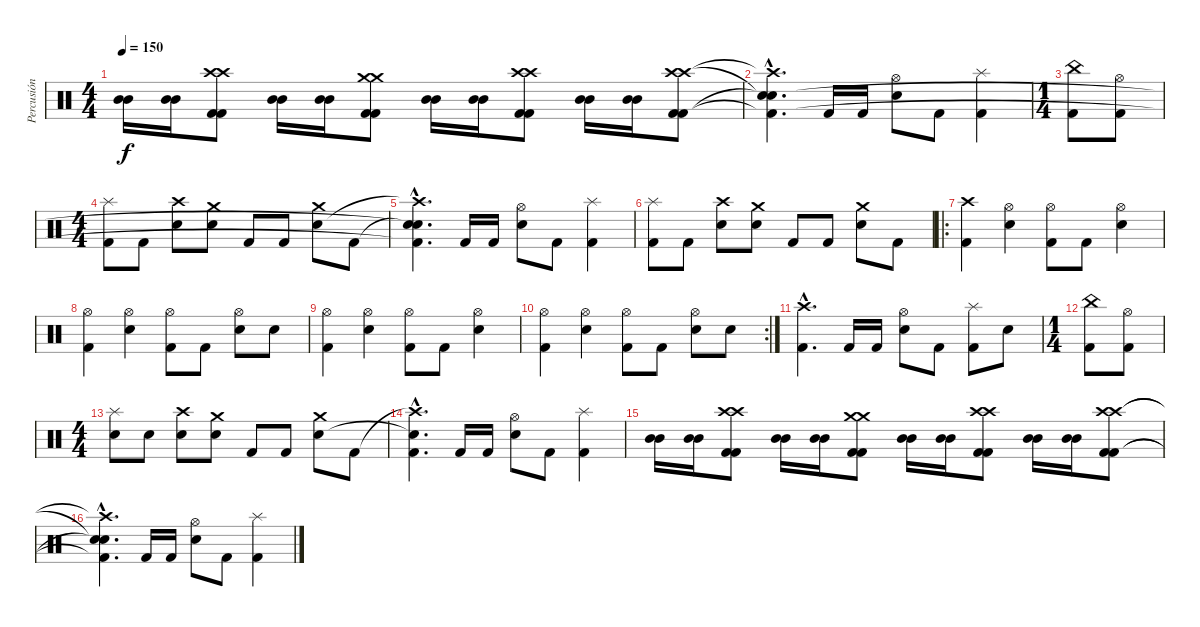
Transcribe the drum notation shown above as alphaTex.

\track ("Percusión" "Percusión") {instrument percussion}
\staff {score}
\articulation defaults
\ts (4 4)
\tempo 150
\clef neutral
\ks c
("Mid Tom (hit)" "Mid Tom (hit)").16{dy f} ("Mid Tom (hit)" "Mid Tom (hit)").16 ("Crash high (hit)" "Crash high (hit)" "Kick (hit) 2" "Kick (hit) 2").8 ("Mid Tom (hit)" "Mid Tom (hit)").16 ("Mid Tom (hit)" "Mid Tom (hit)").16 ("Crash medium (hit)" "Crash medium (hit)" "Kick (hit) 2" "Kick (hit) 2").8 ("Mid Tom (hit)" "Mid Tom (hit)").16 ("Mid Tom (hit)" "Mid Tom (hit)").16 ("Crash high (hit)" "Crash high (hit)" "Kick (hit) 2" "Kick (hit) 2").8 ("Mid Tom (hit)" "Mid Tom (hit)").16 ("Mid Tom (hit)" "Mid Tom (hit)").16 ("Crash high (hit)" "Crash high (hit)" "Kick (hit) 2" "Kick (hit) 2").8 |
("Snare (hit)"{hac t} "Crash high (hit)"{hac t} "Snare (hit)"{hac t} "Kick (hit) 2"{hac t}).4{d} "Kick (hit) 2".16 "Kick (hit) 2".16 ("Hi-Hat (open)" "Electric Snare (hit)").8 "Kick (hit) 2".8 ("Splash (hit)" "Kick (hit) 2").4 |
\ts (1 4)
("China (hit)" "Kick (hit) 2").8 ("Hi-Hat (open)" "Kick (hit) 2").8 |
\ts (4 4)
("Splash (hit)" "Kick (hit) 2").8 "Kick (hit) 2".8 ("Crash high (hit)" "Electric Snare (hit)").8 ("Crash medium (hit)" "Electric Snare (hit)").8 "Kick (hit) 2".8 "Kick (hit) 2".8 ("Crash medium (hit)" "Electric Snare (hit)").8 "Kick (hit) 2".8 |
("Snare (hit)"{hac t} "Crash high (hit)"{hac t} "Snare (hit)"{hac t} "Kick (hit) 2"{hac t}).4{d} "Kick (hit) 2".16 "Kick (hit) 2".16 ("Hi-Hat (open)" "Electric Snare (hit)").8 "Kick (hit) 2".8 ("Splash (hit)" "Kick (hit) 2").4 |
("Splash (hit)" "Kick (hit) 2").8 "Kick (hit) 2".8 ("Crash high (hit)" "Electric Snare (hit)").8 ("Crash medium (hit)" "Electric Snare (hit)").8 "Kick (hit) 2".8 "Kick (hit) 2".8 ("Crash medium (hit)" "Electric Snare (hit)").8 "Kick (hit) 2".8 |
\ro
("Crash high (hit)" "Kick (hit) 2").4 ("Hi-Hat (open)" "Electric Snare (hit)").4 ("Hi-Hat (open)" "Kick (hit) 2").8 "Kick (hit) 2".8 ("Hi-Hat (open)" "Electric Snare (hit)").4 |
("Hi-Hat (open)" "Kick (hit) 2").4 ("Hi-Hat (open)" "Electric Snare (hit)").4 ("Hi-Hat (open)" "Kick (hit) 2").8 "Kick (hit) 2".8 ("Hi-Hat (open)" "Electric Snare (hit)").8 "Electric Snare (hit)".8 |
("Hi-Hat (open)" "Kick (hit) 2").4 ("Hi-Hat (open)" "Electric Snare (hit)").4 ("Hi-Hat (open)" "Kick (hit) 2").8 "Kick (hit) 2".8 ("Hi-Hat (open)" "Electric Snare (hit)").4 |
\rc 2
("Hi-Hat (open)" "Kick (hit) 2").4 ("Hi-Hat (open)" "Electric Snare (hit)").4 ("Hi-Hat (open)" "Kick (hit) 2").8 "Kick (hit) 2".8 ("Hi-Hat (open)" "Electric Snare (hit)").8 "Electric Snare (hit)".8 |
("Crash high (hit)"{hac} "Kick (hit) 2"{hac}).4{d} "Kick (hit) 2".16 "Kick (hit) 2".16 ("Hi-Hat (open)" "Electric Snare (hit)").8 "Kick (hit) 2".8 ("Splash (hit)" "Kick (hit) 2").8 "Electric Snare (hit)".8 |
\ts (1 4)
("China (hit)" "Kick (hit) 2").8 ("Hi-Hat (open)" "Kick (hit) 2").8 |
\ts (4 4)
("Splash (hit)" "Electric Snare (hit)").8 "Electric Snare (hit)".8 ("Crash high (hit)" "Electric Snare (hit)").8 ("Crash medium (hit)" "Electric Snare (hit)").8 "Kick (hit) 2".8 "Kick (hit) 2".8 ("Crash medium (hit)" "Electric Snare (hit)").8 "Kick (hit) 2".8 |
("Crash high (hit)"{hac t} "Snare (hit)"{hac t} "Kick (hit) 2"{hac}).4{d} "Kick (hit) 2".16 "Kick (hit) 2".16 ("Hi-Hat (open)" "Electric Snare (hit)").8 "Kick (hit) 2".8 ("Splash (hit)" "Kick (hit) 2").4 |
("Mid Tom (hit)" "Mid Tom (hit)").16 ("Mid Tom (hit)" "Mid Tom (hit)").16 ("Crash high (hit)" "Crash high (hit)" "Kick (hit) 2" "Kick (hit) 2").8 ("Mid Tom (hit)" "Mid Tom (hit)").16 ("Mid Tom (hit)" "Mid Tom (hit)").16 ("Crash medium (hit)" "Crash medium (hit)" "Kick (hit) 2" "Kick (hit) 2").8 ("Mid Tom (hit)" "Mid Tom (hit)").16 ("Mid Tom (hit)" "Mid Tom (hit)").16 ("Crash high (hit)" "Crash high (hit)" "Kick (hit) 2" "Kick (hit) 2").8 ("Mid Tom (hit)" "Mid Tom (hit)").16 ("Mid Tom (hit)" "Mid Tom (hit)").16 ("Crash high (hit)" "Crash high (hit)" "Kick (hit) 2" "Kick (hit) 2").8 |
("Snare (hit)"{hac t} "Crash high (hit)"{hac t} "Snare (hit)"{hac t} "Kick (hit) 2"{hac t}).4{d} "Kick (hit) 2".16 "Kick (hit) 2".16 ("Hi-Hat (open)" "Electric Snare (hit)").8 "Kick (hit) 2".8 ("Splash (hit)" "Kick (hit) 2").4
